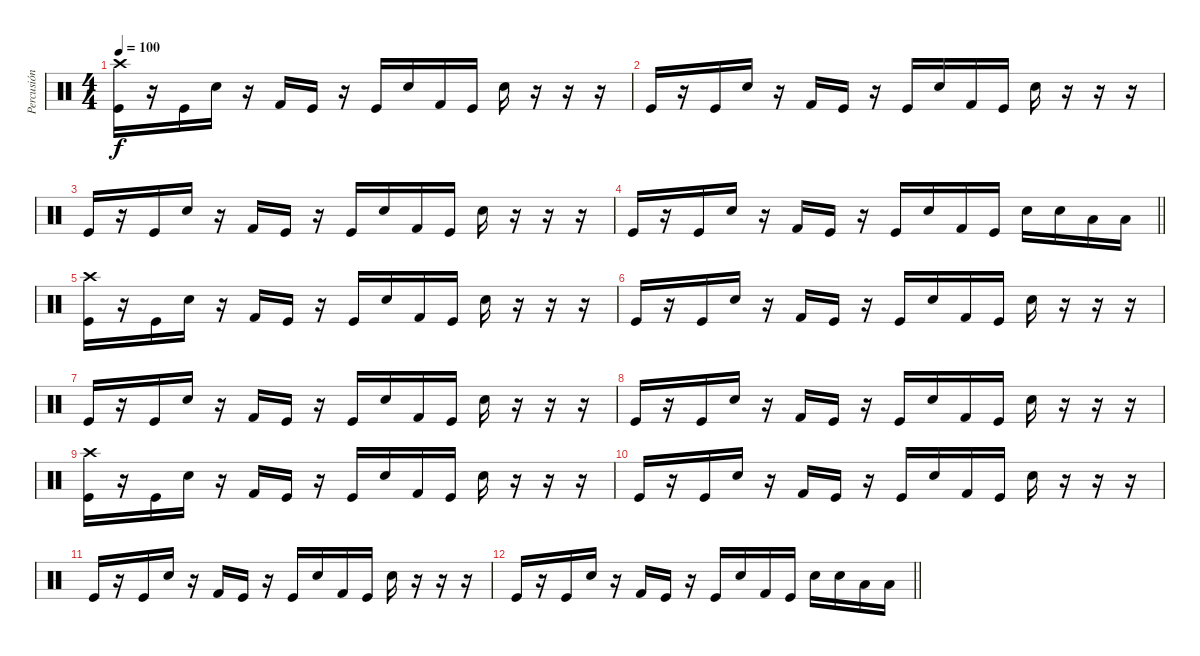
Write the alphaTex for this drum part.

\track ("Percusión" "Percusión") {instrument percussion}
\staff {score}
\articulation defaults
\ts (4 4)
\tempo 100
\clef neutral
\ks c
("Crash high (hit)" "Kick (hit)").16{dy f} r.16 "Kick (hit)".16 "Electric Snare (hit)".16 r.16 "Kick (hit) 2".16 "Kick (hit)".16 r.16 "Kick (hit)".16 "Electric Snare (hit)".16 "Kick (hit) 2".16 "Kick (hit)".16 "Electric Snare (hit)".16 r.16 r.16 r.16 |
"Kick (hit)".16 r.16 "Kick (hit)".16 "Electric Snare (hit)".16 r.16 "Kick (hit) 2".16 "Kick (hit)".16 r.16 "Kick (hit)".16 "Electric Snare (hit)".16 "Kick (hit) 2".16 "Kick (hit)".16 "Electric Snare (hit)".16 r.16 r.16 r.16 |
"Kick (hit)".16 r.16 "Kick (hit)".16 "Electric Snare (hit)".16 r.16 "Kick (hit) 2".16 "Kick (hit)".16 r.16 "Kick (hit)".16 "Electric Snare (hit)".16 "Kick (hit) 2".16 "Kick (hit)".16 "Electric Snare (hit)".16 r.16 r.16 r.16 |
\barLineRight lightlight "Kick (hit)".16
r.16 "Kick (hit)".16 "Electric Snare (hit)".16 r.16 "Kick (hit) 2".16 "Kick (hit)".16 r.16 "Kick (hit)".16 "Electric Snare (hit)".16 "Kick (hit) 2".16 "Kick (hit)".16 "Electric Snare (hit)".16 "Electric Snare (hit)".16 "Low Tom (hit)".16 "Low Tom (hit)".16 |
("Crash high (hit)" "Kick (hit)").16 r.16 "Kick (hit)".16 "Electric Snare (hit)".16 r.16 "Kick (hit) 2".16 "Kick (hit)".16 r.16 "Kick (hit)".16 "Electric Snare (hit)".16 "Kick (hit) 2".16 "Kick (hit)".16 "Electric Snare (hit)".16 r.16 r.16 r.16 |
"Kick (hit)".16 r.16 "Kick (hit)".16 "Electric Snare (hit)".16 r.16 "Kick (hit) 2".16 "Kick (hit)".16 r.16 "Kick (hit)".16 "Electric Snare (hit)".16 "Kick (hit) 2".16 "Kick (hit)".16 "Electric Snare (hit)".16 r.16 r.16 r.16 |
"Kick (hit)".16 r.16 "Kick (hit)".16 "Electric Snare (hit)".16 r.16 "Kick (hit) 2".16 "Kick (hit)".16 r.16 "Kick (hit)".16 "Electric Snare (hit)".16 "Kick (hit) 2".16 "Kick (hit)".16 "Electric Snare (hit)".16 r.16 r.16 r.16 |
"Kick (hit)".16 r.16 "Kick (hit)".16 "Electric Snare (hit)".16 r.16 "Kick (hit) 2".16 "Kick (hit)".16 r.16 "Kick (hit)".16 "Electric Snare (hit)".16 "Kick (hit) 2".16 "Kick (hit)".16 "Electric Snare (hit)".16 r.16 r.16 r.16 |
("Crash high (hit)" "Kick (hit)").16 r.16 "Kick (hit)".16 "Electric Snare (hit)".16 r.16 "Kick (hit) 2".16 "Kick (hit)".16 r.16 "Kick (hit)".16 "Electric Snare (hit)".16 "Kick (hit) 2".16 "Kick (hit)".16 "Electric Snare (hit)".16 r.16 r.16 r.16 |
"Kick (hit)".16 r.16 "Kick (hit)".16 "Electric Snare (hit)".16 r.16 "Kick (hit) 2".16 "Kick (hit)".16 r.16 "Kick (hit)".16 "Electric Snare (hit)".16 "Kick (hit) 2".16 "Kick (hit)".16 "Electric Snare (hit)".16 r.16 r.16 r.16 |
"Kick (hit)".16 r.16 "Kick (hit)".16 "Electric Snare (hit)".16 r.16 "Kick (hit) 2".16 "Kick (hit)".16 r.16 "Kick (hit)".16 "Electric Snare (hit)".16 "Kick (hit) 2".16 "Kick (hit)".16 "Electric Snare (hit)".16 r.16 r.16 r.16 |
\barLineRight lightlight "Kick (hit)".16
r.16 "Kick (hit)".16 "Electric Snare (hit)".16 r.16 "Kick (hit) 2".16 "Kick (hit)".16 r.16 "Kick (hit)".16 "Electric Snare (hit)".16 "Kick (hit) 2".16 "Kick (hit)".16 "Electric Snare (hit)".16 "Electric Snare (hit)".16 "Low Tom (hit)".16 "Low Tom (hit)".16
